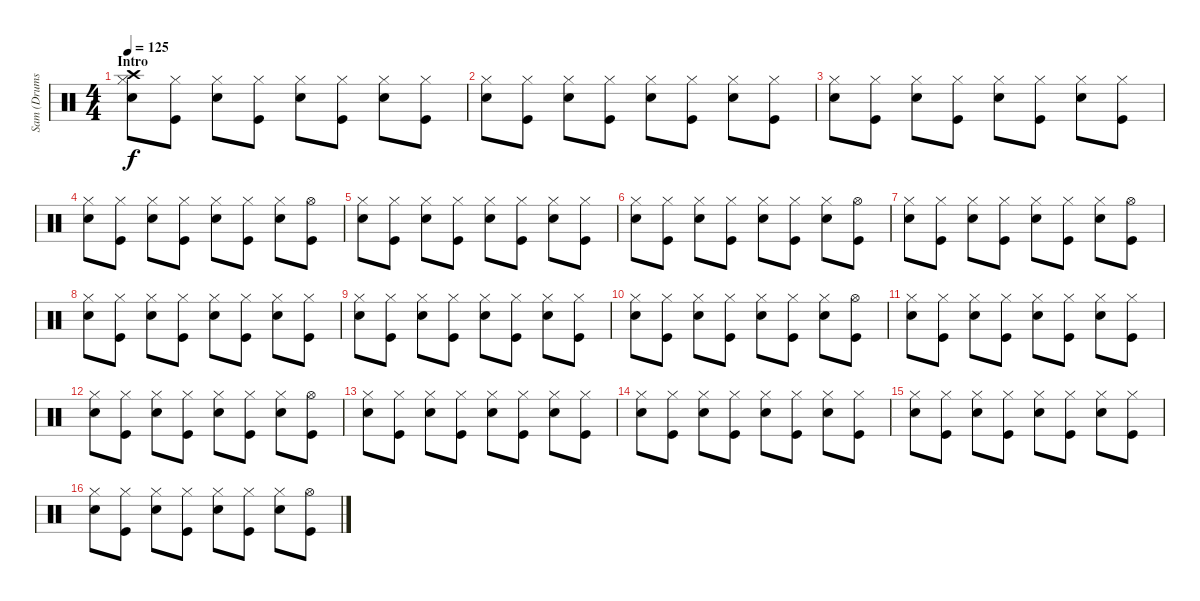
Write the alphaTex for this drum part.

\track ("Sam (Drums)" "Sam (Drums") {instrument percussion}
\staff {score}
\articulation defaults
\ts (4 4)
\section ("" "Intro")
\tempo 125
\clef neutral
\ks c
("Crash high (hit)" "Hi-Hat (closed)" "Snare (hit) 2").8{dy f} ("Hi-Hat (closed)" "Kick (hit)").8 ("Hi-Hat (closed)" "Snare (hit) 2").8 ("Hi-Hat (closed)" "Kick (hit)").8 ("Hi-Hat (closed)" "Snare (hit) 2").8 ("Hi-Hat (closed)" "Kick (hit)").8 ("Hi-Hat (closed)" "Snare (hit) 2").8 ("Hi-Hat (closed)" "Kick (hit)").8 |
("Hi-Hat (closed)" "Snare (hit) 2").8 ("Hi-Hat (closed)" "Kick (hit)").8 ("Hi-Hat (closed)" "Snare (hit) 2").8 ("Hi-Hat (closed)" "Kick (hit)").8 ("Hi-Hat (closed)" "Snare (hit) 2").8 ("Hi-Hat (closed)" "Kick (hit)").8 ("Hi-Hat (closed)" "Snare (hit) 2").8 ("Hi-Hat (closed)" "Kick (hit)").8 |
("Hi-Hat (closed)" "Snare (hit) 2").8 ("Hi-Hat (closed)" "Kick (hit)").8 ("Hi-Hat (closed)" "Snare (hit) 2").8 ("Hi-Hat (closed)" "Kick (hit)").8 ("Hi-Hat (closed)" "Snare (hit) 2").8 ("Hi-Hat (closed)" "Kick (hit)").8 ("Hi-Hat (closed)" "Snare (hit) 2").8 ("Hi-Hat (closed)" "Kick (hit)").8 |
("Hi-Hat (closed)" "Snare (hit) 2").8 ("Hi-Hat (closed)" "Kick (hit)").8 ("Hi-Hat (closed)" "Snare (hit) 2").8 ("Hi-Hat (closed)" "Kick (hit)").8 ("Hi-Hat (closed)" "Snare (hit) 2").8 ("Hi-Hat (closed)" "Kick (hit)").8 ("Hi-Hat (closed)" "Snare (hit) 2").8 ("Hi-Hat (open)" "Kick (hit)").8 |
("Hi-Hat (closed)" "Snare (hit) 2").8 ("Hi-Hat (closed)" "Kick (hit)").8 ("Hi-Hat (closed)" "Snare (hit) 2").8 ("Hi-Hat (closed)" "Kick (hit)").8 ("Hi-Hat (closed)" "Snare (hit) 2").8 ("Hi-Hat (closed)" "Kick (hit)").8 ("Hi-Hat (closed)" "Snare (hit) 2").8 ("Hi-Hat (closed)" "Kick (hit)").8 |
("Hi-Hat (closed)" "Snare (hit) 2").8 ("Hi-Hat (closed)" "Kick (hit)").8 ("Hi-Hat (closed)" "Snare (hit) 2").8 ("Hi-Hat (closed)" "Kick (hit)").8 ("Hi-Hat (closed)" "Snare (hit) 2").8 ("Hi-Hat (closed)" "Kick (hit)").8 ("Hi-Hat (closed)" "Snare (hit) 2").8 ("Hi-Hat (open)" "Kick (hit)").8 |
("Hi-Hat (closed)" "Snare (hit) 2").8 ("Hi-Hat (closed)" "Kick (hit)").8 ("Hi-Hat (closed)" "Snare (hit) 2").8 ("Hi-Hat (closed)" "Kick (hit)").8 ("Hi-Hat (closed)" "Snare (hit) 2").8 ("Hi-Hat (closed)" "Kick (hit)").8 ("Hi-Hat (closed)" "Snare (hit) 2").8 ("Hi-Hat (open)" "Kick (hit)").8 |
("Hi-Hat (closed)" "Snare (hit) 2").8 ("Hi-Hat (closed)" "Kick (hit)").8 ("Hi-Hat (closed)" "Snare (hit) 2").8 ("Hi-Hat (closed)" "Kick (hit)").8 ("Hi-Hat (closed)" "Snare (hit) 2").8 ("Hi-Hat (closed)" "Kick (hit)").8 ("Hi-Hat (closed)" "Snare (hit) 2").8 ("Hi-Hat (closed)" "Kick (hit)").8 |
("Hi-Hat (closed)" "Snare (hit) 2").8 ("Hi-Hat (closed)" "Kick (hit)").8 ("Hi-Hat (closed)" "Snare (hit) 2").8 ("Hi-Hat (closed)" "Kick (hit)").8 ("Hi-Hat (closed)" "Snare (hit) 2").8 ("Hi-Hat (closed)" "Kick (hit)").8 ("Hi-Hat (closed)" "Snare (hit) 2").8 ("Hi-Hat (closed)" "Kick (hit)").8 |
("Hi-Hat (closed)" "Snare (hit) 2").8 ("Hi-Hat (closed)" "Kick (hit)").8 ("Hi-Hat (closed)" "Snare (hit) 2").8 ("Hi-Hat (closed)" "Kick (hit)").8 ("Hi-Hat (closed)" "Snare (hit) 2").8 ("Hi-Hat (closed)" "Kick (hit)").8 ("Hi-Hat (closed)" "Snare (hit) 2").8 ("Hi-Hat (open)" "Kick (hit)").8 |
("Hi-Hat (closed)" "Snare (hit) 2").8 ("Hi-Hat (closed)" "Kick (hit)").8 ("Hi-Hat (closed)" "Snare (hit) 2").8 ("Hi-Hat (closed)" "Kick (hit)").8 ("Hi-Hat (closed)" "Snare (hit) 2").8 ("Hi-Hat (closed)" "Kick (hit)").8 ("Hi-Hat (closed)" "Snare (hit) 2").8 ("Hi-Hat (closed)" "Kick (hit)").8 |
("Hi-Hat (closed)" "Snare (hit) 2").8 ("Hi-Hat (closed)" "Kick (hit)").8 ("Hi-Hat (closed)" "Snare (hit) 2").8 ("Hi-Hat (closed)" "Kick (hit)").8 ("Hi-Hat (closed)" "Snare (hit) 2").8 ("Hi-Hat (closed)" "Kick (hit)").8 ("Hi-Hat (closed)" "Snare (hit) 2").8 ("Hi-Hat (open)" "Kick (hit)").8 |
("Hi-Hat (closed)" "Snare (hit) 2").8 ("Hi-Hat (closed)" "Kick (hit)").8 ("Hi-Hat (closed)" "Snare (hit) 2").8 ("Hi-Hat (closed)" "Kick (hit)").8 ("Hi-Hat (closed)" "Snare (hit) 2").8 ("Hi-Hat (closed)" "Kick (hit)").8 ("Hi-Hat (closed)" "Snare (hit) 2").8 ("Hi-Hat (closed)" "Kick (hit)").8 |
("Hi-Hat (closed)" "Snare (hit) 2").8 ("Hi-Hat (closed)" "Kick (hit)").8 ("Hi-Hat (closed)" "Snare (hit) 2").8 ("Hi-Hat (closed)" "Kick (hit)").8 ("Hi-Hat (closed)" "Snare (hit) 2").8 ("Hi-Hat (closed)" "Kick (hit)").8 ("Hi-Hat (closed)" "Snare (hit) 2").8 ("Hi-Hat (closed)" "Kick (hit)").8 |
("Hi-Hat (closed)" "Snare (hit) 2").8 ("Hi-Hat (closed)" "Kick (hit)").8 ("Hi-Hat (closed)" "Snare (hit) 2").8 ("Hi-Hat (closed)" "Kick (hit)").8 ("Hi-Hat (closed)" "Snare (hit) 2").8 ("Hi-Hat (closed)" "Kick (hit)").8 ("Hi-Hat (closed)" "Snare (hit) 2").8 ("Hi-Hat (closed)" "Kick (hit)").8 |
("Hi-Hat (closed)" "Snare (hit) 2").8 ("Hi-Hat (closed)" "Kick (hit)").8 ("Hi-Hat (closed)" "Snare (hit) 2").8 ("Hi-Hat (closed)" "Kick (hit)").8 ("Hi-Hat (closed)" "Snare (hit) 2").8 ("Hi-Hat (closed)" "Kick (hit)").8 ("Hi-Hat (closed)" "Snare (hit) 2").8 ("Hi-Hat (open)" "Kick (hit)").8
